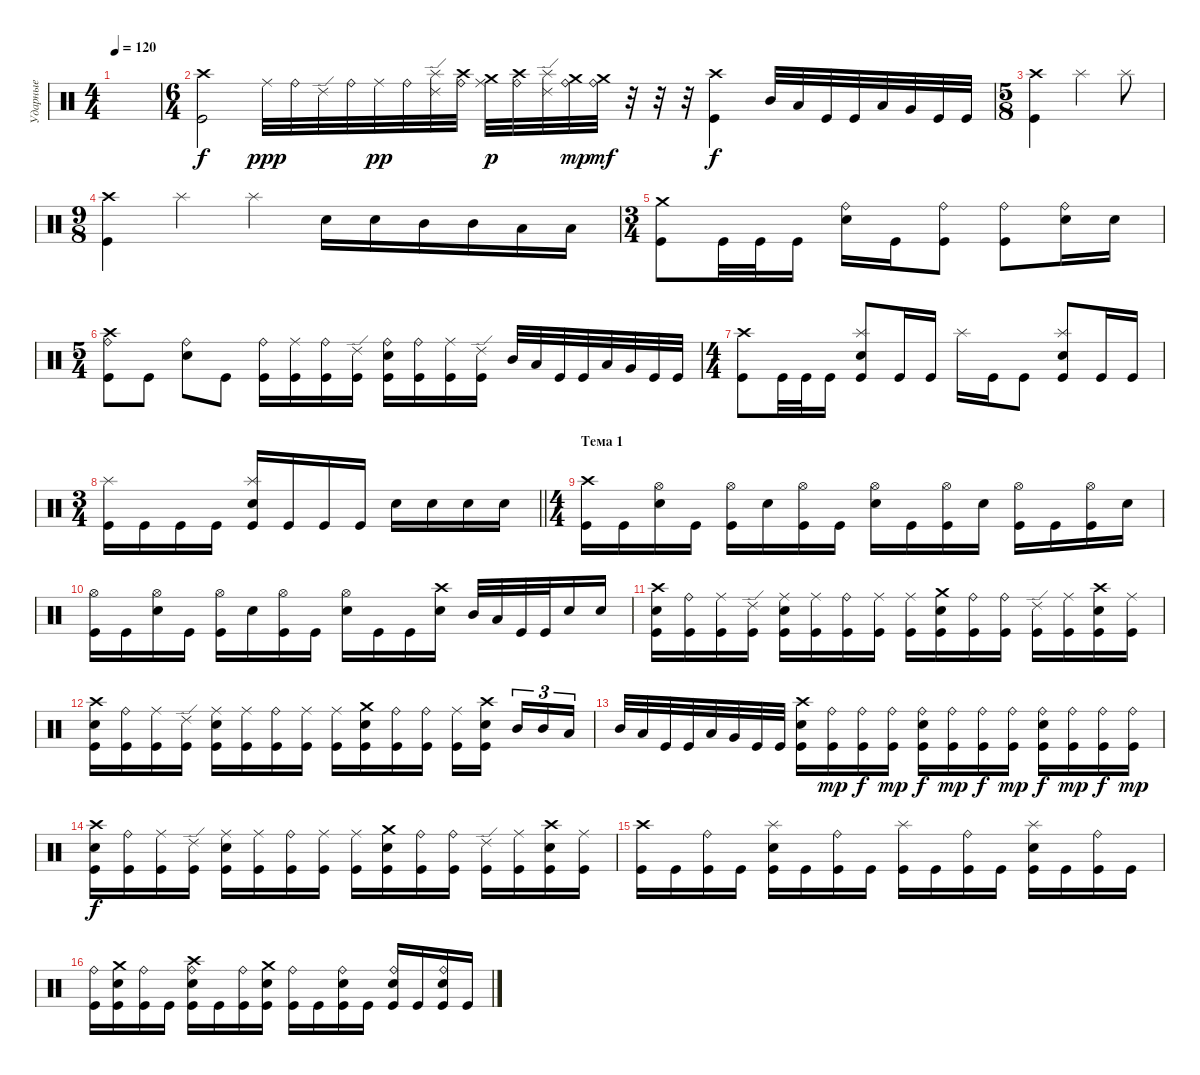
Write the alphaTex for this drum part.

\track ("Ударные" "Ударные") {instrument percussion}
\staff {score}
\articulation defaults
\ts (4 4)
\tempo 120
\clef neutral
\ks c
|
\ts (6 4)
("Crash high (hit)" "Kick (hit)").2 "Ride (middle)".32{dy ppp} "Ride (bell)".32 "Ride (edge) 2".32 "Ride (bell)".32 "Ride (middle)".32{dy pp} "Ride (bell)".32 ("Ride (edge) 2" "Splash (hit)").32 ("Ride (bell)" "Crash high (hit)").32 ("Ride (middle)" "Crash medium (hit)").32{dy p} ("Ride (bell)" "Crash high (hit)").32 ("Ride (edge) 2" "Splash (hit)").32 ("Ride (bell)" "Crash medium (hit)").32{dy mp} ("Crash medium (hit)" "Ride (bell)").32{dy mf} r.32 r.32 r.32 ("Kick (hit)" "Crash high (hit)").4{dy f} "Mid Tom (hit)".32 "Low Tom (hit)".32 "Kick (hit)".32 "Kick (hit)".32 "Low Tom (hit)".32 "Very Low Tom (hit)".32 "Kick (hit)".32 "Kick (hit)".32 |
\ts (5 8)
("Kick (hit)" "Crash high (hit)").4 "Splash (hit)".4 "Splash (hit)".8 |
\ts (9 8)
("Kick (hit)" "Crash high (hit)").4 "Splash (hit)".4 "Splash (hit)".4 "Snare (hit) 2".16 "Snare (hit) 2".16 "Mid Tom (hit)".16 "Mid Tom (hit)".16 "Low Tom (hit)".16 "Low Tom (hit)".16 |
\ts (3 4)
("Kick (hit)" "Crash medium (hit)").8 "Kick (hit)".32 "Kick (hit)".32 "Kick (hit)".16 ("Snare (hit) 2" "Ride (bell)").16 "Kick (hit)".16 ("Kick (hit)" "Ride (bell)").8 ("Kick (hit)" "Ride (bell)").8 ("Snare (hit) 2" "Ride (bell)").16 "Snare (hit) 2".16 |
\ts (5 4)
("Kick (hit)" "Crash high (hit)" "Ride (bell)").8 "Kick (hit)".8 ("Snare (hit) 2" "Ride (bell)").8 "Kick (hit)".8 ("Kick (hit)" "Ride (bell)").16 ("Kick (hit)" "Ride (middle)").16 ("Kick (hit)" "Ride (bell)").16 ("Kick (hit)" "Ride (edge) 2").16 ("Kick (hit)" "Snare (hit) 2" "Ride (bell)").16 ("Kick (hit)" "Ride (bell)").16 ("Kick (hit)" "Ride (middle)").16 ("Kick (hit)" "Ride (edge) 2").16 "Mid Tom (hit)".32 "Low Tom (hit)".32 "Kick (hit)".32 "Kick (hit)".32 "Low Tom (hit)".32 "Very Low Tom (hit)".32 "Kick (hit)".32 "Kick (hit)".32 |
\ts (4 4)
("Kick (hit)" "Crash high (hit)").8 "Kick (hit)".32 "Kick (hit)".32 "Kick (hit)".16 ("Kick (hit)" "Snare (hit) 2" "Splash (hit)").8 "Kick (hit)".16 "Kick (hit)".16 "Splash (hit)".16 "Kick (hit)".16 "Kick (hit)".8 ("Kick (hit)" "Snare (hit) 2" "Splash (hit)").8 "Kick (hit)".16 "Kick (hit)".16 |
\ts (3 4)
\barLineRight lightlight
("Kick (hit)" "Splash (hit)").16 "Kick (hit)".16 "Kick (hit)".16 "Kick (hit)".16 ("Kick (hit)" "Snare (hit) 2" "Splash (hit)").16 "Kick (hit)".16 "Kick (hit)".16 "Kick (hit)".16 "Snare (hit) 2".16 "Snare (hit) 2".16 "Snare (hit) 2".16 "Snare (hit) 2".16 |
\ts (4 4)
\section ("" "Тема 1")
("Kick (hit)" "Crash high (hit)").16 "Kick (hit)".16 ("Snare (hit) 2" "Hi-Hat (open)").16 "Kick (hit)".16 ("Kick (hit)" "Hi-Hat (open)").16 "Snare (hit) 2".16 ("Kick (hit)" "Hi-Hat (open)").16 "Kick (hit)".16 ("Snare (hit) 2" "Hi-Hat (open)").16 "Kick (hit)".16 ("Kick (hit)" "Hi-Hat (open)").16 "Snare (hit) 2".16 ("Kick (hit)" "Hi-Hat (open)").16 "Kick (hit)".16 ("Kick (hit)" "Hi-Hat (open)").16 "Snare (hit) 2".16 |
("Kick (hit)" "Hi-Hat (open)").16 "Kick (hit)".16 ("Snare (hit) 2" "Hi-Hat (open)").16 "Kick (hit)".16 ("Kick (hit)" "Hi-Hat (open)").16 "Snare (hit) 2".16 ("Kick (hit)" "Hi-Hat (open)").16 "Kick (hit)".16 ("Snare (hit) 2" "Hi-Hat (open)").16 "Kick (hit)".16 "Kick (hit)".16 ("Snare (hit) 2" "Crash high (hit)").16 "Mid Tom (hit)".32 "Low Tom (hit)".32 "Kick (hit)".32 "Kick (hit)".32 "Snare (hit) 2".16 "Snare (hit) 2".16 |
("Crash high (hit)" "Kick (hit)" "Snare (hit) 2").16 ("Ride (bell)" "Kick (hit)").16 ("Ride (middle)" "Kick (hit)").16 ("Ride (edge) 2" "Kick (hit)").16 ("Ride (middle)" "Kick (hit)" "Snare (hit) 2").16 ("Ride (middle)" "Kick (hit)").16 ("Ride (bell)" "Kick (hit)").16 ("Ride (middle)" "Kick (hit)").16 ("Ride (middle)" "Kick (hit)").16 ("Crash medium (hit)" "Kick (hit)" "Snare (hit) 2").16 ("Ride (bell)" "Kick (hit)").16 ("Ride (bell)" "Kick (hit)").16 ("Ride (edge) 2" "Kick (hit)").16 ("Ride (middle)" "Kick (hit)").16 ("Crash high (hit)" "Kick (hit)" "Snare (hit) 2").16 ("Ride (middle)" "Kick (hit)").16 |
("Crash high (hit)" "Kick (hit)" "Snare (hit) 2").16 ("Ride (bell)" "Kick (hit)").16 ("Ride (middle)" "Kick (hit)").16 ("Ride (edge) 2" "Kick (hit)").16 ("Ride (middle)" "Kick (hit)" "Snare (hit) 2").16 ("Ride (middle)" "Kick (hit)").16 ("Ride (bell)" "Kick (hit)").16 ("Ride (middle)" "Kick (hit)").16 ("Ride (middle)" "Kick (hit)").16 ("Crash medium (hit)" "Kick (hit)" "Snare (hit) 2").16 ("Ride (bell)" "Kick (hit)").16 ("Ride (bell)" "Kick (hit)").16 ("Ride (middle)" "Kick (hit)").16 ("Crash high (hit)" "Kick (hit)" "Snare (hit) 2").16 "Mid Tom (hit)".16{tu (3 2)} "Mid Tom (hit)".16{tu (3 2)} "Low Tom (hit)".16{tu (3 2)} |
"Mid Tom (hit)".32 "Low Tom (hit)".32 "Kick (hit)".32 "Kick (hit)".32 "Low Tom (hit)".32 "Very Low Tom (hit)".32 "Kick (hit)".32 "Kick (hit)".32 ("Kick (hit)" "Snare (hit) 2" "Crash high (hit)").16 ("Kick (hit)" "Ride (bell)").16{dy mp} ("Kick (hit)" "Ride (bell)").16{dy f} ("Kick (hit)" "Ride (bell)").16{dy mp} ("Kick (hit)" "Snare (hit) 2" "Ride (bell)").16{dy f} ("Kick (hit)" "Ride (bell)").16{dy mp} ("Kick (hit)" "Ride (bell)").16{dy f} ("Kick (hit)" "Ride (bell)").16{dy mp} ("Kick (hit)" "Snare (hit) 2" "Ride (bell)").16{dy f} ("Kick (hit)" "Ride (bell)").16{dy mp} ("Kick (hit)" "Ride (bell)").16{dy f} ("Kick (hit)" "Ride (bell)").16{dy mp} |
("Crash high (hit)" "Kick (hit)" "Snare (hit) 2").16{dy f} ("Ride (bell)" "Kick (hit)").16 ("Ride (middle)" "Kick (hit)").16 ("Ride (edge) 2" "Kick (hit)").16 ("Ride (middle)" "Kick (hit)" "Snare (hit) 2").16 ("Ride (middle)" "Kick (hit)").16 ("Ride (bell)" "Kick (hit)").16 ("Ride (middle)" "Kick (hit)").16 ("Ride (middle)" "Kick (hit)").16 ("Crash medium (hit)" "Kick (hit)" "Snare (hit) 2").16 ("Ride (bell)" "Kick (hit)").16 ("Ride (bell)" "Kick (hit)").16 ("Ride (edge) 2" "Kick (hit)").16 ("Ride (middle)" "Kick (hit)").16 ("Crash high (hit)" "Kick (hit)" "Snare (hit) 2").16 ("Ride (middle)" "Kick (hit)").16 |
("Kick (hit)" "Crash high (hit)").16 "Kick (hit)".16 ("Kick (hit)" "Ride (bell)").16 "Kick (hit)".16 ("Kick (hit)" "Splash (hit)" "Snare (hit) 2").16 "Kick (hit)".16 ("Kick (hit)" "Ride (bell)").16 "Kick (hit)".16 ("Kick (hit)" "Splash (hit)").16 "Kick (hit)".16 ("Kick (hit)" "Ride (bell)").16 "Kick (hit)".16 ("Kick (hit)" "Splash (hit)" "Snare (hit) 2").16 "Kick (hit)".16 ("Kick (hit)" "Ride (bell)").16 "Kick (hit)".16 |
("Ride (bell)" "Kick (hit)").16 ("Crash medium (hit)" "Kick (hit)" "Snare (hit) 2").16 ("Ride (bell)" "Kick (hit)").16 "Kick (hit)".16 ("Ride (bell)" "Crash high (hit)" "Kick (hit)" "Snare (hit) 2").16 "Kick (hit)".16 ("Ride (bell)" "Kick (hit)").16 ("Crash medium (hit)" "Kick (hit)" "Snare (hit) 2").16 ("Ride (bell)" "Kick (hit)").16 "Kick (hit)".16 ("Ride (bell)" "Kick (hit)" "Snare (hit) 2").16 "Kick (hit)".16 ("Ride (bell)" "Kick (hit)" "Snare (hit) 2").16 "Kick (hit)".16 ("Ride (bell)" "Kick (hit)" "Snare (hit) 2").16 "Kick (hit)".16
